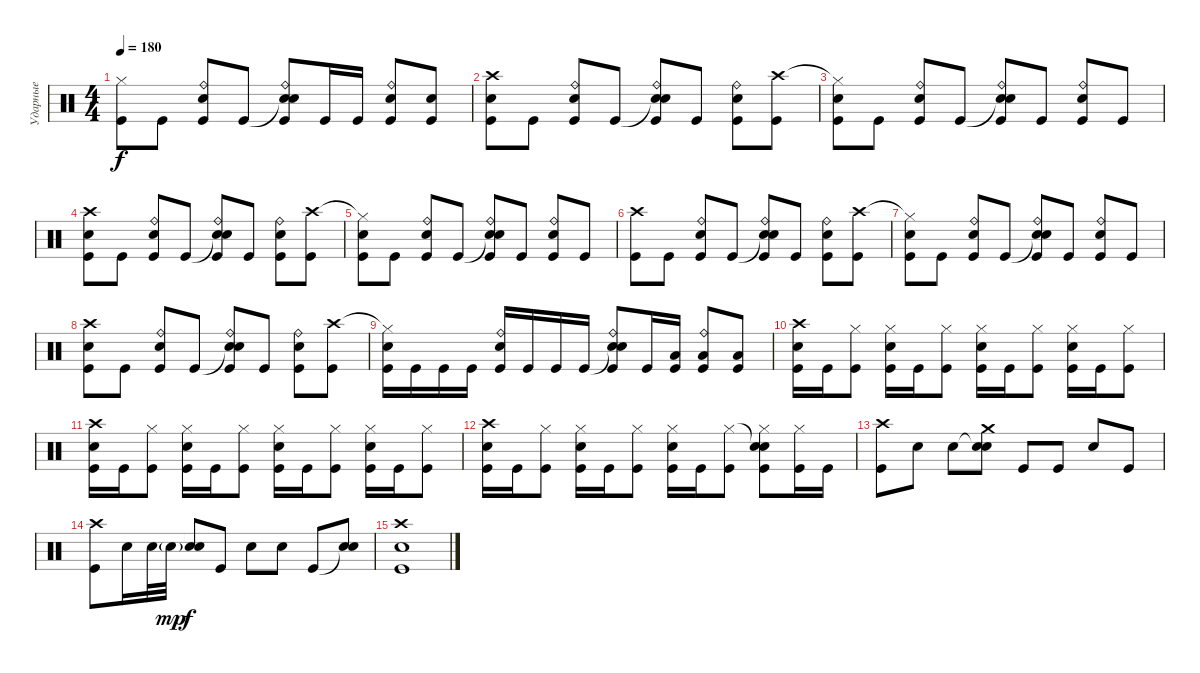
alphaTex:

\track ("Ударные" "Ударные") {instrument percussion}
\staff {score}
\articulation defaults
\ts (4 4)
\tempo 180
\clef neutral
\ks c
("Hi-Hat (closed)"{t} "Kick (hit)").8{dy f} "Kick (hit)".8 ("Ride (bell)" "Electric Snare (hit)" "Kick (hit)").8 "Kick (hit)".8 ("Snare (hit)"{t} "Ride (bell)" "Electric Snare (hit)" "Kick (hit)").8 "Kick (hit)".16 "Kick (hit)".16 ("Ride (bell)" "Electric Snare (hit)" "Kick (hit)").8 ("Electric Snare (hit)" "Kick (hit)").8 |
("Crash high (hit)" "Electric Snare (hit)" "Kick (hit)").8 "Kick (hit)".8 ("Ride (bell)" "Electric Snare (hit)" "Kick (hit)").8 "Kick (hit)".8 ("Snare (hit)"{t} "Ride (bell)" "Electric Snare (hit)" "Kick (hit)").8 "Kick (hit)".8 ("Ride (bell)" "Electric Snare (hit)" "Kick (hit)").8 ("Crash high (hit)" "Kick (hit)").8 |
("Hi-Hat (closed)"{t} "Electric Snare (hit)" "Kick (hit)").8 "Kick (hit)".8 ("Ride (bell)" "Electric Snare (hit)" "Kick (hit)").8 "Kick (hit)".8 ("Snare (hit)"{t} "Ride (bell)" "Electric Snare (hit)" "Kick (hit)").8 "Kick (hit)".8 ("Ride (bell)" "Electric Snare (hit)" "Kick (hit)").8 "Kick (hit)".8 |
("Crash high (hit)" "Electric Snare (hit)" "Kick (hit)").8 "Kick (hit)".8 ("Ride (bell)" "Electric Snare (hit)" "Kick (hit)").8 "Kick (hit)".8 ("Snare (hit)"{t} "Ride (bell)" "Electric Snare (hit)" "Kick (hit)").8 "Kick (hit)".8 ("Ride (bell)" "Electric Snare (hit)" "Kick (hit)").8 ("Crash high (hit)" "Kick (hit)").8 |
("Hi-Hat (closed)"{t} "Electric Snare (hit)" "Kick (hit)").8 "Kick (hit)".8 ("Ride (bell)" "Electric Snare (hit)" "Kick (hit)").8 "Kick (hit)".8 ("Snare (hit)"{t} "Ride (bell)" "Electric Snare (hit)" "Kick (hit)").8 "Kick (hit)".8 ("Ride (bell)" "Electric Snare (hit)" "Kick (hit)").8 "Kick (hit)".8 |
("Crash high (hit)" "Kick (hit)").8 "Kick (hit)".8 ("Ride (bell)" "Electric Snare (hit)" "Kick (hit)").8 "Kick (hit)".8 ("Snare (hit)"{t} "Ride (bell)" "Electric Snare (hit)" "Kick (hit)").8 "Kick (hit)".8 ("Ride (bell)" "Electric Snare (hit)" "Kick (hit)").8 ("Crash high (hit)" "Kick (hit)").8 |
("Hi-Hat (closed)"{t} "Electric Snare (hit)" "Kick (hit)").8 "Kick (hit)".8 ("Ride (bell)" "Electric Snare (hit)" "Kick (hit)").8 "Kick (hit)".8 ("Snare (hit)"{t} "Ride (bell)" "Electric Snare (hit)" "Kick (hit)").8 "Kick (hit)".8 ("Ride (bell)" "Electric Snare (hit)" "Kick (hit)").8 "Kick (hit)".8 |
("Crash high (hit)" "Electric Snare (hit)" "Kick (hit)").8 "Kick (hit)".8 ("Ride (bell)" "Electric Snare (hit)" "Kick (hit)").8 "Kick (hit)".8 ("Snare (hit)"{t} "Ride (bell)" "Electric Snare (hit)" "Kick (hit)").8 "Kick (hit)".8 ("Ride (bell)" "Electric Snare (hit)" "Kick (hit)").8 ("Crash high (hit)" "Kick (hit)").8 |
("Hi-Hat (closed)"{t} "Electric Snare (hit)" "Kick (hit)").16 "Kick (hit)".16 "Kick (hit)".16 "Kick (hit)".16 ("Ride (bell)" "Electric Snare (hit)" "Kick (hit)").16 "Kick (hit)".16 "Kick (hit)".16 "Kick (hit)".16 ("Snare (hit)"{t} "Ride (bell)" "Electric Snare (hit)" "Kick (hit)").8 "Kick (hit)".16 ("Low Tom (hit)" "Kick (hit)").16 ("Ride (bell)" "Low Tom (hit)" "Kick (hit)").8 ("Low Tom (hit)" "Kick (hit)").8 |
("Crash high (hit)" "Electric Snare (hit)" "Kick (hit)").16 "Kick (hit)".16 ("Hi-Hat (closed)" "Kick (hit)").8 ("Hi-Hat (closed)" "Electric Snare (hit)" "Kick (hit)").16 "Kick (hit)".16 ("Hi-Hat (closed)" "Kick (hit)").8 ("Hi-Hat (closed)" "Electric Snare (hit)" "Kick (hit)").16 "Kick (hit)".16 ("Hi-Hat (closed)" "Kick (hit)").8 ("Hi-Hat (closed)" "Electric Snare (hit)" "Kick (hit)").16 "Kick (hit)".16 ("Hi-Hat (closed)" "Kick (hit)").8 |
("Crash high (hit)" "Electric Snare (hit)" "Kick (hit)").16 "Kick (hit)".16 ("Hi-Hat (closed)" "Kick (hit)").8 ("Hi-Hat (closed)" "Electric Snare (hit)" "Kick (hit)").16 "Kick (hit)".16 ("Hi-Hat (closed)" "Kick (hit)").8 ("Hi-Hat (closed)" "Electric Snare (hit)" "Kick (hit)").16 "Kick (hit)".16 ("Hi-Hat (closed)" "Kick (hit)").8 ("Hi-Hat (closed)" "Electric Snare (hit)" "Kick (hit)").16 "Kick (hit)".16 ("Hi-Hat (closed)" "Kick (hit)").8 |
("Crash high (hit)" "Electric Snare (hit)" "Kick (hit)").16 "Kick (hit)".16 ("Hi-Hat (closed)" "Kick (hit)").8 ("Hi-Hat (closed)" "Electric Snare (hit)" "Kick (hit)").16 "Kick (hit)".16 ("Hi-Hat (closed)" "Kick (hit)").8 ("Hi-Hat (closed)" "Electric Snare (hit)" "Kick (hit)").16 "Kick (hit)".16 ("Hi-Hat (closed)" "Kick (hit)").8 ("Snare (hit)"{t} "Hi-Hat (closed)" "Electric Snare (hit)" "Kick (hit)").8 ("Hi-Hat (closed)" "Kick (hit)").16 "Kick (hit)".16 |
("Crash high (hit)" "Kick (hit)").8 "Electric Snare (hit)".8 "Electric Snare (hit)".8 ("Snare (hit)"{t} "Crash medium (hit)" "Electric Snare (hit)").8 "Kick (hit)".8 "Kick (hit)".8 "Electric Snare (hit)".8 "Kick (hit)".8 |
("Crash high (hit)" "Kick (hit)").8 "Electric Snare (hit)".16 "Electric Snare (hit)".32 "Electric Snare (hit)"{g}.32{dy mp} ("Snare (hit)"{t} "Electric Snare (hit)").8{dy f} "Kick (hit)".8 "Electric Snare (hit)".8 "Electric Snare (hit)".8 "Kick (hit)".8 ("Snare (hit)"{t} "Electric Snare (hit)").8 |
("Crash high (hit)" "Electric Snare (hit)" "Kick (hit)").1
